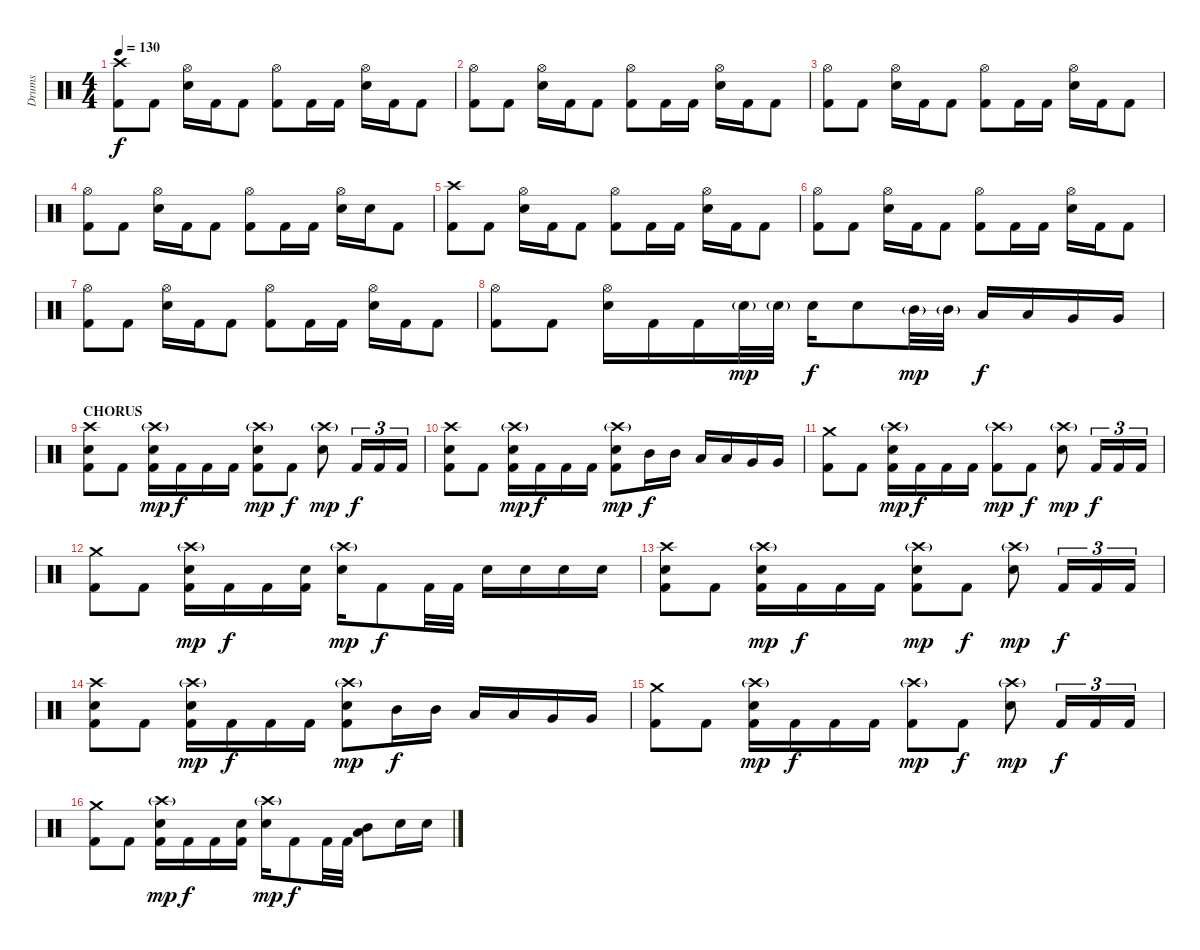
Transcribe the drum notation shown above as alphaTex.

\track ("Drums" "Drums") {instrument percussion}
\staff {score}
\articulation defaults
\ts (4 4)
\tempo 130
\clef neutral
\ks c
("Crash high (hit)" "Kick (hit) 2").8{dy f} "Kick (hit) 2".8 ("Hi-Hat (open)" "Electric Snare (hit)").16 "Kick (hit) 2".16 "Kick (hit) 2".8 ("Hi-Hat (open)" "Kick (hit) 2").8 "Kick (hit) 2".16 "Kick (hit) 2".16 ("Hi-Hat (open)" "Electric Snare (hit)").16 "Kick (hit) 2".16 "Kick (hit) 2".8 |
("Hi-Hat (open)" "Kick (hit) 2").8 "Kick (hit) 2".8 ("Hi-Hat (open)" "Electric Snare (hit)").16 "Kick (hit) 2".16 "Kick (hit) 2".8 ("Hi-Hat (open)" "Kick (hit) 2").8 "Kick (hit) 2".16 "Kick (hit) 2".16 ("Hi-Hat (open)" "Electric Snare (hit)").16 "Kick (hit) 2".16 "Kick (hit) 2".8 |
("Hi-Hat (open)" "Kick (hit) 2").8 "Kick (hit) 2".8 ("Hi-Hat (open)" "Electric Snare (hit)").16 "Kick (hit) 2".16 "Kick (hit) 2".8 ("Hi-Hat (open)" "Kick (hit) 2").8 "Kick (hit) 2".16 "Kick (hit) 2".16 ("Hi-Hat (open)" "Electric Snare (hit)").16 "Kick (hit) 2".16 "Kick (hit) 2".8 |
("Hi-Hat (open)" "Kick (hit) 2").8 "Kick (hit) 2".8 ("Hi-Hat (open)" "Electric Snare (hit)").16 "Kick (hit) 2".16 "Kick (hit) 2".8 ("Hi-Hat (open)" "Kick (hit) 2").8 "Kick (hit) 2".16 "Kick (hit) 2".16 ("Hi-Hat (open)" "Electric Snare (hit)").16 "Electric Snare (hit)".16 "Kick (hit) 2".8 |
("Crash high (hit)" "Kick (hit) 2").8 "Kick (hit) 2".8 ("Hi-Hat (open)" "Electric Snare (hit)").16 "Kick (hit) 2".16 "Kick (hit) 2".8 ("Hi-Hat (open)" "Kick (hit) 2").8 "Kick (hit) 2".16 "Kick (hit) 2".16 ("Hi-Hat (open)" "Electric Snare (hit)").16 "Kick (hit) 2".16 "Kick (hit) 2".8 |
("Hi-Hat (open)" "Kick (hit) 2").8 "Kick (hit) 2".8 ("Hi-Hat (open)" "Electric Snare (hit)").16 "Kick (hit) 2".16 "Kick (hit) 2".8 ("Hi-Hat (open)" "Kick (hit) 2").8 "Kick (hit) 2".16 "Kick (hit) 2".16 ("Hi-Hat (open)" "Electric Snare (hit)").16 "Kick (hit) 2".16 "Kick (hit) 2".8 |
("Hi-Hat (open)" "Kick (hit) 2").8 "Kick (hit) 2".8 ("Hi-Hat (open)" "Electric Snare (hit)").16 "Kick (hit) 2".16 "Kick (hit) 2".8 ("Hi-Hat (open)" "Kick (hit) 2").8 "Kick (hit) 2".16 "Kick (hit) 2".16 ("Hi-Hat (open)" "Electric Snare (hit)").16 "Kick (hit) 2".16 "Kick (hit) 2".8 |
("Hi-Hat (open)" "Kick (hit) 2").8 "Kick (hit) 2".8 ("Hi-Hat (open)" "Electric Snare (hit)").16 "Kick (hit) 2".16 "Kick (hit) 2".16 "Electric Snare (hit)"{g}.32{dy mp} "Electric Snare (hit)"{g}.32 "Electric Snare (hit)".16{dy f} "Electric Snare (hit)".8 "Mid Tom (hit)"{g}.32{dy mp} "Mid Tom (hit)"{g}.32 "Low Tom (hit)".16{dy f} "Low Tom (hit)".16 "Very Low Tom (hit)".16 "Very Low Tom (hit)".16 |
\section ("" "CHORUS")
("Crash high (hit)" "Electric Snare (hit)" "Kick (hit) 2").8 "Kick (hit) 2".8 ("Crash high (hit)"{g} "Electric Snare (hit)" "Kick (hit) 2").16{dy mp} "Kick (hit) 2".16{dy f} "Kick (hit) 2".16 "Kick (hit) 2".16 ("Crash high (hit)"{g} "Electric Snare (hit)" "Kick (hit) 2").8{dy mp} "Kick (hit) 2".8{dy f} ("Crash high (hit)"{g} "Electric Snare (hit)").8{dy mp} "Kick (hit) 2".16{tu (3 2) dy f} "Kick (hit) 2".16{tu (3 2)} "Kick (hit) 2".16{tu (3 2)} |
("Crash high (hit)" "Electric Snare (hit)" "Kick (hit) 2").8 "Kick (hit) 2".8 ("Crash high (hit)"{g} "Electric Snare (hit)" "Kick (hit) 2").16{dy mp} "Kick (hit) 2".16{dy f} "Kick (hit) 2".16 "Kick (hit) 2".16 ("Crash high (hit)"{g} "Electric Snare (hit)" "Kick (hit) 2").8{dy mp} "Mid Tom (hit)".16{dy f} "Mid Tom (hit)".16 "Low Tom (hit)".16 "Low Tom (hit)".16 "Very Low Tom (hit)".16 "Very Low Tom (hit)".16 |
("Crash medium (hit)" "Kick (hit) 2").8 "Kick (hit) 2".8 ("Crash high (hit)"{g} "Electric Snare (hit)" "Kick (hit) 2").16{dy mp} "Kick (hit) 2".16{dy f} "Kick (hit) 2".16 "Kick (hit) 2".16 ("Crash high (hit)"{g} "Kick (hit) 2").8{dy mp} "Kick (hit) 2".8{dy f} ("Crash high (hit)"{g} "Electric Snare (hit)").8{dy mp} "Kick (hit) 2".16{tu (3 2) dy f} "Kick (hit) 2".16{tu (3 2)} "Kick (hit) 2".16{tu (3 2)} |
("Crash medium (hit)" "Kick (hit) 2").8 "Kick (hit) 2".8 ("Crash high (hit)"{g} "Electric Snare (hit)" "Kick (hit) 2").16{dy mp} "Kick (hit) 2".16{dy f} "Kick (hit) 2".16 ("Electric Snare (hit)" "Kick (hit) 2").16 ("Crash high (hit)"{g} "Electric Snare (hit)").16{dy mp} "Kick (hit) 2".8{dy f} "Kick (hit) 2".32 "Kick (hit) 2".32 "Electric Snare (hit)".16 "Electric Snare (hit)".16 "Electric Snare (hit)".16 "Electric Snare (hit)".16 |
("Crash high (hit)" "Electric Snare (hit)" "Kick (hit) 2").8 "Kick (hit) 2".8 ("Crash high (hit)"{g} "Electric Snare (hit)" "Kick (hit) 2").16{dy mp} "Kick (hit) 2".16{dy f} "Kick (hit) 2".16 "Kick (hit) 2".16 ("Crash high (hit)"{g} "Electric Snare (hit)" "Kick (hit) 2").8{dy mp} "Kick (hit) 2".8{dy f} ("Crash high (hit)"{g} "Electric Snare (hit)").8{dy mp} "Kick (hit) 2".16{tu (3 2) dy f} "Kick (hit) 2".16{tu (3 2)} "Kick (hit) 2".16{tu (3 2)} |
("Crash high (hit)" "Electric Snare (hit)" "Kick (hit) 2").8 "Kick (hit) 2".8 ("Crash high (hit)"{g} "Electric Snare (hit)" "Kick (hit) 2").16{dy mp} "Kick (hit) 2".16{dy f} "Kick (hit) 2".16 "Kick (hit) 2".16 ("Crash high (hit)"{g} "Electric Snare (hit)" "Kick (hit) 2").8{dy mp} "Mid Tom (hit)".16{dy f} "Mid Tom (hit)".16 "Low Tom (hit)".16 "Low Tom (hit)".16 "Very Low Tom (hit)".16 "Very Low Tom (hit)".16 |
("Crash medium (hit)" "Kick (hit) 2").8 "Kick (hit) 2".8 ("Crash high (hit)"{g} "Electric Snare (hit)" "Kick (hit) 2").16{dy mp} "Kick (hit) 2".16{dy f} "Kick (hit) 2".16 "Kick (hit) 2".16 ("Crash high (hit)"{g} "Kick (hit) 2").8{dy mp} "Kick (hit) 2".8{dy f} ("Crash high (hit)"{g} "Electric Snare (hit)").8{dy mp} "Kick (hit) 2".16{tu (3 2) dy f} "Kick (hit) 2".16{tu (3 2)} "Kick (hit) 2".16{tu (3 2)} |
("Crash medium (hit)" "Kick (hit) 2").8 "Kick (hit) 2".8 ("Crash high (hit)"{g} "Electric Snare (hit)" "Kick (hit) 2").16{dy mp} "Kick (hit) 2".16{dy f} "Kick (hit) 2".16 ("Electric Snare (hit)" "Kick (hit) 2").16 ("Crash high (hit)"{g} "Electric Snare (hit)").16{dy mp} "Kick (hit) 2".8{dy f} "Kick (hit) 2".32 "Kick (hit) 2".32 ("Low Tom (hit)" "Mid Tom (hit)").8 "Electric Snare (hit)".16 "Electric Snare (hit)".16
